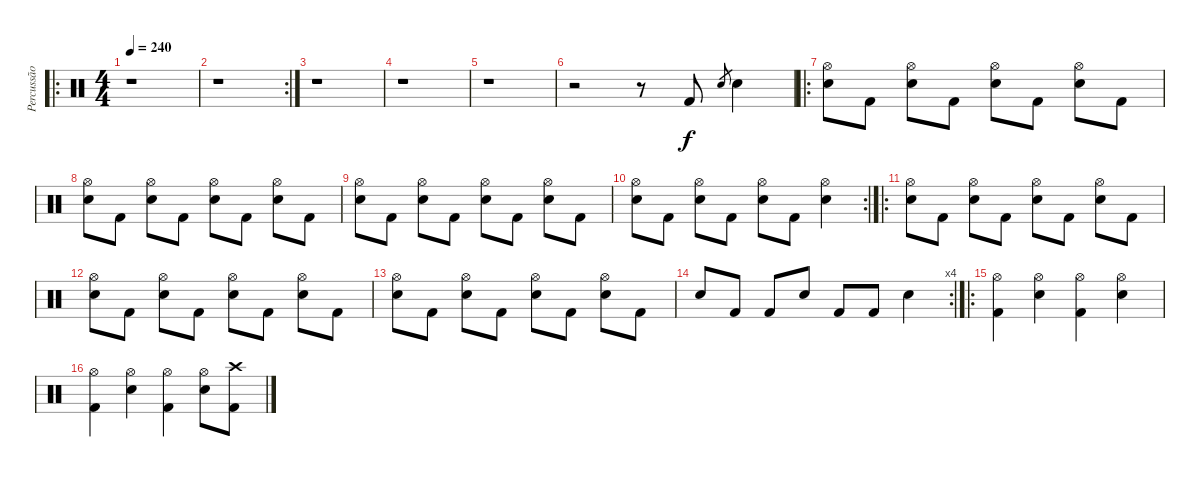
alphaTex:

\track ("Percussão" "Percussão") {instrument percussion}
\staff {score}
\articulation defaults
\ro
\ts (4 4)
\tempo 240
\clef neutral
\ks c
r.1{dy f} |
\rc 2
r.1 |
r.1 |
r.1 |
r.1 |
r.2 r.8 "Kick (hit) 2".8 "Electric Snare (hit)".8{gr} "Electric Snare (hit)".4 |
\ro
("Hi-Hat (open)" "Electric Snare (hit)").8 "Kick (hit) 2".8 ("Hi-Hat (open)" "Electric Snare (hit)").8 "Kick (hit) 2".8 ("Hi-Hat (open)" "Electric Snare (hit)").8 "Kick (hit) 2".8 ("Hi-Hat (open)" "Electric Snare (hit)").8 "Kick (hit) 2".8 |
("Hi-Hat (open)" "Electric Snare (hit)").8 "Kick (hit) 2".8 ("Hi-Hat (open)" "Electric Snare (hit)").8 "Kick (hit) 2".8 ("Hi-Hat (open)" "Electric Snare (hit)").8 "Kick (hit) 2".8 ("Hi-Hat (open)" "Electric Snare (hit)").8 "Kick (hit) 2".8 |
("Hi-Hat (open)" "Electric Snare (hit)").8 "Kick (hit) 2".8 ("Hi-Hat (open)" "Electric Snare (hit)").8 "Kick (hit) 2".8 ("Hi-Hat (open)" "Electric Snare (hit)").8 "Kick (hit) 2".8 ("Hi-Hat (open)" "Electric Snare (hit)").8 "Kick (hit) 2".8 |
\rc 2
("Hi-Hat (open)" "Electric Snare (hit)").8 "Kick (hit) 2".8 ("Hi-Hat (open)" "Electric Snare (hit)").8 "Kick (hit) 2".8 ("Hi-Hat (open)" "Electric Snare (hit)").8 "Kick (hit) 2".8 ("Hi-Hat (open)" "Electric Snare (hit)").4 |
\ro
("Hi-Hat (open)" "Electric Snare (hit)").8 "Kick (hit) 2".8 ("Hi-Hat (open)" "Electric Snare (hit)").8 "Kick (hit) 2".8 ("Hi-Hat (open)" "Electric Snare (hit)").8 "Kick (hit) 2".8 ("Hi-Hat (open)" "Electric Snare (hit)").8 "Kick (hit) 2".8 |
("Hi-Hat (open)" "Electric Snare (hit)").8 "Kick (hit) 2".8 ("Hi-Hat (open)" "Electric Snare (hit)").8 "Kick (hit) 2".8 ("Hi-Hat (open)" "Electric Snare (hit)").8 "Kick (hit) 2".8 ("Hi-Hat (open)" "Electric Snare (hit)").8 "Kick (hit) 2".8 |
("Hi-Hat (open)" "Electric Snare (hit)").8 "Kick (hit) 2".8 ("Hi-Hat (open)" "Electric Snare (hit)").8 "Kick (hit) 2".8 ("Hi-Hat (open)" "Electric Snare (hit)").8 "Kick (hit) 2".8 ("Hi-Hat (open)" "Electric Snare (hit)").8 "Kick (hit) 2".8 |
\rc 4 "Electric Snare (hit)".8 "Kick (hit) 2".8 "Kick (hit) 2".8 "Electric Snare (hit)".8 "Kick (hit) 2".8 "Kick (hit) 2".8 "Electric Snare (hit)".4
|
\ro
("Hi-Hat (open)" "Kick (hit) 2").4 ("Hi-Hat (open)" "Electric Snare (hit)").4 ("Hi-Hat (open)" "Kick (hit) 2").4 ("Hi-Hat (open)" "Electric Snare (hit)").4 |
("Hi-Hat (open)" "Kick (hit) 2").4 ("Hi-Hat (open)" "Electric Snare (hit)").4 ("Hi-Hat (open)" "Kick (hit) 2").4 ("Hi-Hat (open)" "Electric Snare (hit)").8 ("Crash high (hit)" "Kick (hit) 2").8
